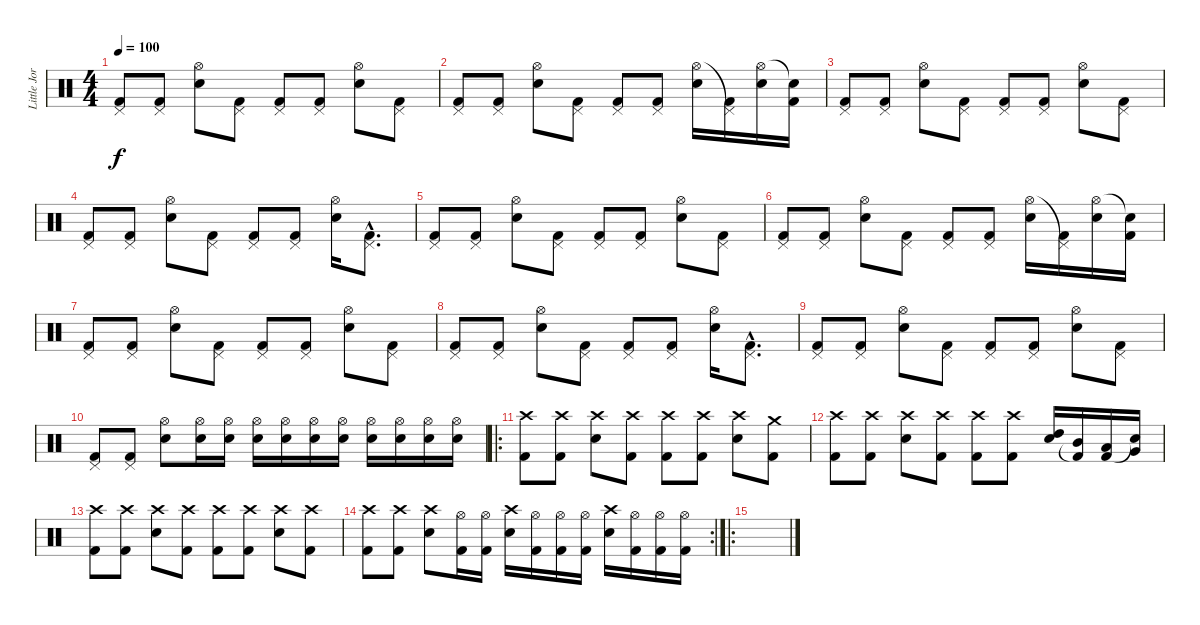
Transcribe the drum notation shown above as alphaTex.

\track ("Little JorDiSoN" "Little Jor") {instrument percussion}
\staff {score}
\articulation defaults
\ts (4 4)
\tempo 100
\clef neutral
\ks c
("Pedal Hi-Hat (hit)" "Kick (hit) 2").8{dy f} ("Pedal Hi-Hat (hit)" "Kick (hit) 2").8 ("Hi-Hat (open)" "Electric Snare (hit)").8 ("Pedal Hi-Hat (hit)" "Kick (hit) 2").8 ("Pedal Hi-Hat (hit)" "Kick (hit) 2").8 ("Pedal Hi-Hat (hit)" "Kick (hit) 2").8 ("Hi-Hat (open)" "Electric Snare (hit)").8 ("Pedal Hi-Hat (hit)" "Kick (hit) 2").8 |
("Pedal Hi-Hat (hit)" "Kick (hit) 2").8 ("Pedal Hi-Hat (hit)" "Kick (hit) 2").8 ("Hi-Hat (open)" "Electric Snare (hit)").8 ("Pedal Hi-Hat (hit)" "Kick (hit) 2").8 ("Pedal Hi-Hat (hit)" "Kick (hit) 2").8 ("Pedal Hi-Hat (hit)" "Kick (hit) 2").8 ("Hi-Hat (open)" "Electric Snare (hit)").16 ("Pedal Hi-Hat (hit)"{t} "Kick (hit) 2").16 ("Hi-Hat (open)" "Electric Snare (hit)").16 ("Snare (hit)"{t} "Kick (hit) 2").16 |
("Pedal Hi-Hat (hit)" "Kick (hit) 2").8 ("Pedal Hi-Hat (hit)" "Kick (hit) 2").8 ("Hi-Hat (open)" "Electric Snare (hit)").8 ("Pedal Hi-Hat (hit)" "Kick (hit) 2").8 ("Pedal Hi-Hat (hit)" "Kick (hit) 2").8 ("Pedal Hi-Hat (hit)" "Kick (hit) 2").8 ("Hi-Hat (open)" "Electric Snare (hit)").8 ("Pedal Hi-Hat (hit)" "Kick (hit) 2").8 |
("Pedal Hi-Hat (hit)" "Kick (hit) 2").8 ("Pedal Hi-Hat (hit)" "Kick (hit) 2").8 ("Hi-Hat (open)" "Electric Snare (hit)").8 ("Pedal Hi-Hat (hit)" "Kick (hit) 2").8 ("Pedal Hi-Hat (hit)" "Kick (hit) 2").8 ("Pedal Hi-Hat (hit)" "Kick (hit) 2").8 ("Hi-Hat (open)" "Electric Snare (hit)").16 ("Pedal Hi-Hat (hit)"{hac} "Kick (hit) 2"{hac}).8{d} |
("Pedal Hi-Hat (hit)" "Kick (hit) 2").8 ("Pedal Hi-Hat (hit)" "Kick (hit) 2").8 ("Hi-Hat (open)" "Electric Snare (hit)").8 ("Pedal Hi-Hat (hit)" "Kick (hit) 2").8 ("Pedal Hi-Hat (hit)" "Kick (hit) 2").8 ("Pedal Hi-Hat (hit)" "Kick (hit) 2").8 ("Hi-Hat (open)" "Electric Snare (hit)").8 ("Pedal Hi-Hat (hit)" "Kick (hit) 2").8 |
("Pedal Hi-Hat (hit)" "Kick (hit) 2").8 ("Pedal Hi-Hat (hit)" "Kick (hit) 2").8 ("Hi-Hat (open)" "Electric Snare (hit)").8 ("Pedal Hi-Hat (hit)" "Kick (hit) 2").8 ("Pedal Hi-Hat (hit)" "Kick (hit) 2").8 ("Pedal Hi-Hat (hit)" "Kick (hit) 2").8 ("Hi-Hat (open)" "Electric Snare (hit)").16 ("Pedal Hi-Hat (hit)"{t} "Kick (hit) 2").16 ("Hi-Hat (open)" "Electric Snare (hit)").16 ("Snare (hit)"{t} "Kick (hit) 2").16 |
("Pedal Hi-Hat (hit)" "Kick (hit) 2").8 ("Pedal Hi-Hat (hit)" "Kick (hit) 2").8 ("Hi-Hat (open)" "Electric Snare (hit)").8 ("Pedal Hi-Hat (hit)" "Kick (hit) 2").8 ("Pedal Hi-Hat (hit)" "Kick (hit) 2").8 ("Pedal Hi-Hat (hit)" "Kick (hit) 2").8 ("Hi-Hat (open)" "Electric Snare (hit)").8 ("Pedal Hi-Hat (hit)" "Kick (hit) 2").8 |
("Pedal Hi-Hat (hit)" "Kick (hit) 2").8 ("Pedal Hi-Hat (hit)" "Kick (hit) 2").8 ("Hi-Hat (open)" "Electric Snare (hit)").8 ("Pedal Hi-Hat (hit)" "Kick (hit) 2").8 ("Pedal Hi-Hat (hit)" "Kick (hit) 2").8 ("Pedal Hi-Hat (hit)" "Kick (hit) 2").8 ("Hi-Hat (open)" "Electric Snare (hit)").16 ("Pedal Hi-Hat (hit)"{hac} "Kick (hit) 2"{hac}).8{d} |
("Pedal Hi-Hat (hit)" "Kick (hit) 2").8 ("Pedal Hi-Hat (hit)" "Kick (hit) 2").8 ("Hi-Hat (open)" "Electric Snare (hit)").8 ("Pedal Hi-Hat (hit)" "Kick (hit) 2").8 ("Pedal Hi-Hat (hit)" "Kick (hit) 2").8 ("Pedal Hi-Hat (hit)" "Kick (hit) 2").8 ("Hi-Hat (open)" "Electric Snare (hit)").8 ("Pedal Hi-Hat (hit)" "Kick (hit) 2").8 |
("Pedal Hi-Hat (hit)" "Kick (hit) 2").8 ("Pedal Hi-Hat (hit)" "Kick (hit) 2").8 ("Hi-Hat (open)" "Electric Snare (hit)").8 ("Hi-Hat (open)" "Electric Snare (hit)").16 ("Hi-Hat (open)" "Electric Snare (hit)").16 ("Hi-Hat (open)" "Electric Snare (hit)").16 ("Hi-Hat (open)" "Electric Snare (hit)").16 ("Hi-Hat (open)" "Electric Snare (hit)").16 ("Hi-Hat (open)" "Electric Snare (hit)").16 ("Hi-Hat (open)" "Electric Snare (hit)").16 ("Hi-Hat (open)" "Electric Snare (hit)").16 ("Hi-Hat (open)" "Electric Snare (hit)").16 ("Hi-Hat (open)" "Electric Snare (hit)").16 |
\ro
("Crash high (hit)" "Kick (hit) 2").8 ("Crash high (hit)" "Kick (hit) 2").8 ("Crash high (hit)" "Electric Snare (hit)").8 ("Crash high (hit)" "Kick (hit) 2").8 ("Crash high (hit)" "Kick (hit) 2").8 ("Crash high (hit)" "Kick (hit) 2").8 ("Crash high (hit)" "Electric Snare (hit)").8 ("Crash medium (hit)" "Kick (hit) 2").8 |
("Crash high (hit)" "Kick (hit) 2").8 ("Crash high (hit)" "Kick (hit) 2").8 ("Crash high (hit)" "Electric Snare (hit)").8 ("Crash high (hit)" "Kick (hit) 2").8 ("Crash high (hit)" "Kick (hit) 2").8 ("Crash high (hit)" "Kick (hit) 2").8 ("High Tom (hit)" "Electric Snare (hit)").16 ("Mid Tom (hit)" "Kick (hit) 2"{t}).16 ("Low Tom (hit)" "Kick (hit) 2").16 ("Very Low Tom (hit)" "Snare (hit)"{t}).16 |
("Crash high (hit)" "Kick (hit) 2").8 ("Crash high (hit)" "Kick (hit) 2").8 ("Crash high (hit)" "Electric Snare (hit)").8 ("Crash high (hit)" "Kick (hit) 2").8 ("Crash high (hit)" "Kick (hit) 2").8 ("Crash high (hit)" "Kick (hit) 2").8 ("Crash high (hit)" "Electric Snare (hit)").8 ("Crash high (hit)" "Kick (hit) 2").8 |
\rc 2
("Crash high (hit)" "Kick (hit) 2").8 ("Crash high (hit)" "Kick (hit) 2").8 ("Crash high (hit)" "Electric Snare (hit)").8 ("Hi-Hat (open)" "Kick (hit) 2").16 ("Hi-Hat (open)" "Kick (hit) 2").16 ("Crash high (hit)" "Electric Snare (hit)").16 ("Hi-Hat (open)" "Kick (hit) 2").16 ("Hi-Hat (open)" "Kick (hit) 2").16 ("Hi-Hat (open)" "Kick (hit) 2").16 ("Crash high (hit)" "Electric Snare (hit)").16 ("Hi-Hat (open)" "Kick (hit) 2").16 ("Hi-Hat (open)" "Kick (hit) 2").16 ("Hi-Hat (open)" "Kick (hit) 2").16 |
\ro
